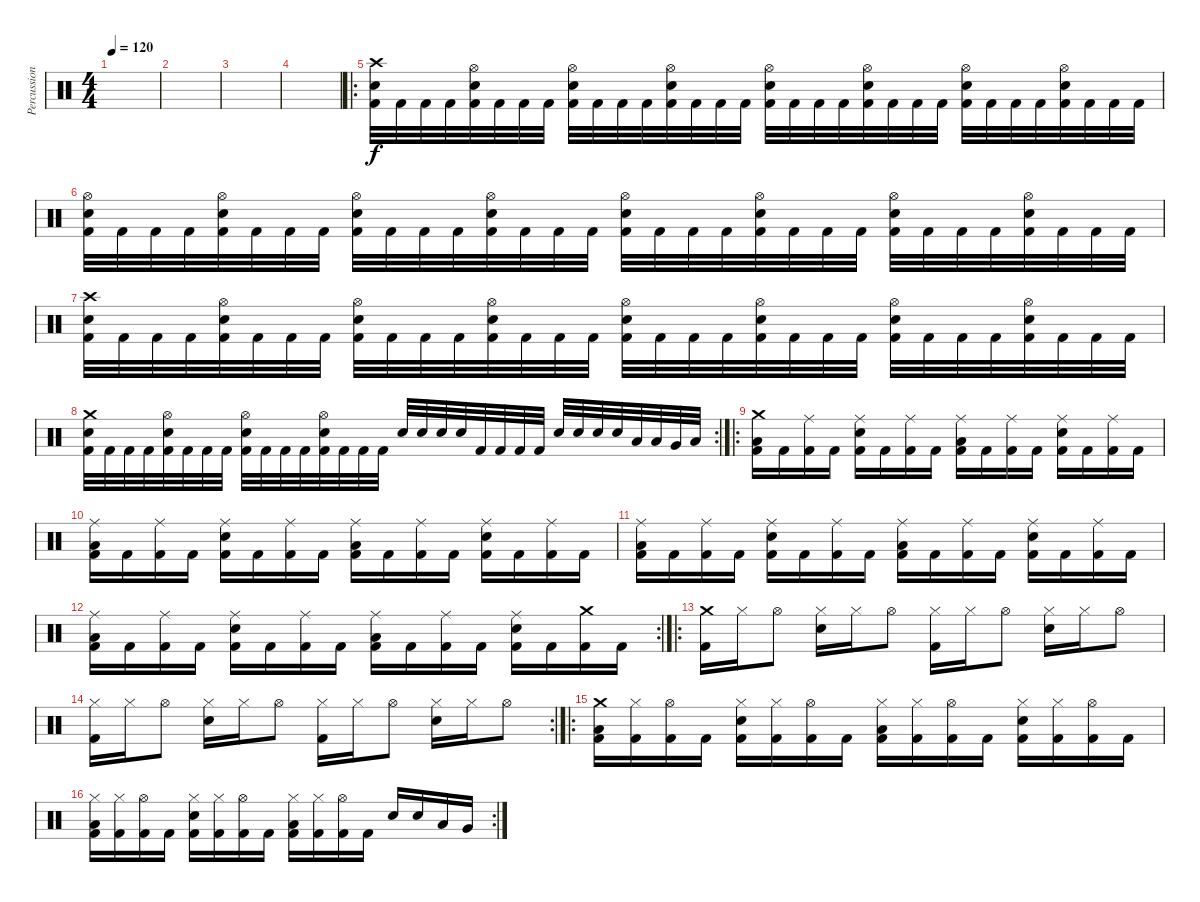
\track ("Percussion" "Percussion") {instrument percussion}
\staff {score}
\articulation defaults
\ts (4 4)
\tempo 120
\clef neutral
\ks c
|
|
|
|
\ro
("Crash high (hit)" "Electric Snare (hit)" "Kick (hit) 2").32 "Kick (hit) 2".32 "Kick (hit) 2".32 "Kick (hit) 2".32 ("Hi-Hat (open)" "Electric Snare (hit)" "Kick (hit) 2").32 "Kick (hit) 2".32 "Kick (hit) 2".32 "Kick (hit) 2".32 ("Hi-Hat (open)" "Electric Snare (hit)" "Kick (hit) 2").32 "Kick (hit) 2".32 "Kick (hit) 2".32 "Kick (hit) 2".32 ("Hi-Hat (open)" "Electric Snare (hit)" "Kick (hit) 2").32 "Kick (hit) 2".32 "Kick (hit) 2".32 "Kick (hit) 2".32 ("Hi-Hat (open)" "Electric Snare (hit)" "Kick (hit) 2").32 "Kick (hit) 2".32 "Kick (hit) 2".32 "Kick (hit) 2".32 ("Hi-Hat (open)" "Electric Snare (hit)" "Kick (hit) 2").32 "Kick (hit) 2".32 "Kick (hit) 2".32 "Kick (hit) 2".32 ("Hi-Hat (open)" "Electric Snare (hit)" "Kick (hit) 2").32 "Kick (hit) 2".32 "Kick (hit) 2".32 "Kick (hit) 2".32 ("Hi-Hat (open)" "Electric Snare (hit)" "Kick (hit) 2").32 "Kick (hit) 2".32 "Kick (hit) 2".32 "Kick (hit) 2".32 |
("Hi-Hat (open)" "Electric Snare (hit)" "Kick (hit) 2").32 "Kick (hit) 2".32 "Kick (hit) 2".32 "Kick (hit) 2".32 ("Hi-Hat (open)" "Electric Snare (hit)" "Kick (hit) 2").32 "Kick (hit) 2".32 "Kick (hit) 2".32 "Kick (hit) 2".32 ("Hi-Hat (open)" "Electric Snare (hit)" "Kick (hit) 2").32 "Kick (hit) 2".32 "Kick (hit) 2".32 "Kick (hit) 2".32 ("Hi-Hat (open)" "Electric Snare (hit)" "Kick (hit) 2").32 "Kick (hit) 2".32 "Kick (hit) 2".32 "Kick (hit) 2".32 ("Hi-Hat (open)" "Electric Snare (hit)" "Kick (hit) 2").32 "Kick (hit) 2".32 "Kick (hit) 2".32 "Kick (hit) 2".32 ("Hi-Hat (open)" "Electric Snare (hit)" "Kick (hit) 2").32 "Kick (hit) 2".32 "Kick (hit) 2".32 "Kick (hit) 2".32 ("Hi-Hat (open)" "Electric Snare (hit)" "Kick (hit) 2").32 "Kick (hit) 2".32 "Kick (hit) 2".32 "Kick (hit) 2".32 ("Hi-Hat (open)" "Electric Snare (hit)" "Kick (hit) 2").32 "Kick (hit) 2".32 "Kick (hit) 2".32 "Kick (hit) 2".32 |
("Crash high (hit)" "Electric Snare (hit)" "Kick (hit) 2").32 "Kick (hit) 2".32 "Kick (hit) 2".32 "Kick (hit) 2".32 ("Hi-Hat (open)" "Electric Snare (hit)" "Kick (hit) 2").32 "Kick (hit) 2".32 "Kick (hit) 2".32 "Kick (hit) 2".32 ("Hi-Hat (open)" "Electric Snare (hit)" "Kick (hit) 2").32 "Kick (hit) 2".32 "Kick (hit) 2".32 "Kick (hit) 2".32 ("Hi-Hat (open)" "Electric Snare (hit)" "Kick (hit) 2").32 "Kick (hit) 2".32 "Kick (hit) 2".32 "Kick (hit) 2".32 ("Hi-Hat (open)" "Electric Snare (hit)" "Kick (hit) 2").32 "Kick (hit) 2".32 "Kick (hit) 2".32 "Kick (hit) 2".32 ("Hi-Hat (open)" "Electric Snare (hit)" "Kick (hit) 2").32 "Kick (hit) 2".32 "Kick (hit) 2".32 "Kick (hit) 2".32 ("Hi-Hat (open)" "Electric Snare (hit)" "Kick (hit) 2").32 "Kick (hit) 2".32 "Kick (hit) 2".32 "Kick (hit) 2".32 ("Hi-Hat (open)" "Electric Snare (hit)" "Kick (hit) 2").32 "Kick (hit) 2".32 "Kick (hit) 2".32 "Kick (hit) 2".32 |
\rc 2
("Crash medium (hit)" "Electric Snare (hit)" "Kick (hit) 2").32 "Kick (hit) 2".32 "Kick (hit) 2".32 "Kick (hit) 2".32 ("Hi-Hat (open)" "Electric Snare (hit)" "Kick (hit) 2").32 "Kick (hit) 2".32 "Kick (hit) 2".32 "Kick (hit) 2".32 ("Hi-Hat (open)" "Electric Snare (hit)" "Kick (hit) 2").32 "Kick (hit) 2".32 "Kick (hit) 2".32 "Kick (hit) 2".32 ("Hi-Hat (open)" "Electric Snare (hit)" "Kick (hit) 2").32 "Kick (hit) 2".32 "Kick (hit) 2".32 "Kick (hit) 2".32 "Electric Snare (hit)".32 "Electric Snare (hit)".32 "Electric Snare (hit)".32 "Electric Snare (hit)".32 "Kick (hit) 2".32 "Kick (hit) 2".32 "Kick (hit) 2".32 "Kick (hit) 2".32 "Electric Snare (hit)".32 "Electric Snare (hit)".32 "Electric Snare (hit)".32 "Electric Snare (hit)".32 "Low Tom (hit)".32 "Low Tom (hit)".32 "Very Low Tom (hit)".32 "Low Floor Tom (hit)".32 |
\ro
("Crash medium (hit)" "Low Floor Tom (hit)" "Kick (hit) 2").16 "Kick (hit) 2".16 ("Ride (middle)" "Kick (hit) 2").16 "Kick (hit) 2".16 ("Ride (middle)" "Electric Snare (hit)" "Kick (hit) 2").16 "Kick (hit) 2".16 ("Ride (middle)" "Kick (hit) 2").16 "Kick (hit) 2".16 ("Ride (middle)" "Low Floor Tom (hit)" "Kick (hit) 2").16 "Kick (hit) 2".16 ("Ride (middle)" "Kick (hit) 2").16 "Kick (hit) 2".16 ("Ride (middle)" "Electric Snare (hit)" "Kick (hit) 2").16 "Kick (hit) 2".16 ("Ride (middle)" "Kick (hit) 2").16 "Kick (hit) 2".16 |
("Ride (middle)" "Low Floor Tom (hit)" "Kick (hit) 2").16 "Kick (hit) 2".16 ("Ride (middle)" "Kick (hit) 2").16 "Kick (hit) 2".16 ("Ride (middle)" "Electric Snare (hit)" "Kick (hit) 2").16 "Kick (hit) 2".16 ("Ride (middle)" "Kick (hit) 2").16 "Kick (hit) 2".16 ("Ride (middle)" "Low Floor Tom (hit)" "Kick (hit) 2").16 "Kick (hit) 2".16 ("Ride (middle)" "Kick (hit) 2").16 "Kick (hit) 2".16 ("Ride (middle)" "Electric Snare (hit)" "Kick (hit) 2").16 "Kick (hit) 2".16 ("Ride (middle)" "Kick (hit) 2").16 "Kick (hit) 2".16 |
("Ride (middle)" "Low Floor Tom (hit)" "Kick (hit) 2").16 "Kick (hit) 2".16 ("Ride (middle)" "Kick (hit) 2").16 "Kick (hit) 2".16 ("Ride (middle)" "Electric Snare (hit)" "Kick (hit) 2").16 "Kick (hit) 2".16 ("Ride (middle)" "Kick (hit) 2").16 "Kick (hit) 2".16 ("Ride (middle)" "Low Floor Tom (hit)" "Kick (hit) 2").16 "Kick (hit) 2".16 ("Ride (middle)" "Kick (hit) 2").16 "Kick (hit) 2".16 ("Ride (middle)" "Electric Snare (hit)" "Kick (hit) 2").16 "Kick (hit) 2".16 ("Ride (middle)" "Kick (hit) 2").16 "Kick (hit) 2".16 |
\rc 2
("Ride (middle)" "Low Floor Tom (hit)" "Kick (hit) 2").16 "Kick (hit) 2".16 ("Ride (middle)" "Kick (hit) 2").16 "Kick (hit) 2".16 ("Ride (middle)" "Electric Snare (hit)" "Kick (hit) 2").16 "Kick (hit) 2".16 ("Ride (middle)" "Kick (hit) 2").16 "Kick (hit) 2".16 ("Ride (middle)" "Low Floor Tom (hit)" "Kick (hit) 2").16 "Kick (hit) 2".16 ("Ride (middle)" "Kick (hit) 2").16 "Kick (hit) 2".16 ("Ride (middle)" "Electric Snare (hit)" "Kick (hit) 2").16 "Kick (hit) 2".16 ("Crash medium (hit)" "Kick (hit) 2").16 "Kick (hit) 2".16 |
\ro
("Crash medium (hit)" "Kick (hit) 2").16 "Hi-Hat (closed)".16 "Hi-Hat (open)".8 ("Hi-Hat (closed)" "Electric Snare (hit)").16 "Hi-Hat (closed)".16 "Hi-Hat (open)".8 ("Hi-Hat (closed)" "Kick (hit) 2").16 "Hi-Hat (closed)".16 "Hi-Hat (open)".8 ("Hi-Hat (closed)" "Electric Snare (hit)").16 "Hi-Hat (closed)".16 "Hi-Hat (open)".8 |
\rc 2
("Hi-Hat (closed)" "Kick (hit) 2").16 "Hi-Hat (closed)".16 "Hi-Hat (open)".8 ("Hi-Hat (closed)" "Electric Snare (hit)").16 "Hi-Hat (closed)".16 "Hi-Hat (open)".8 ("Hi-Hat (closed)" "Kick (hit) 2").16 "Hi-Hat (closed)".16 "Hi-Hat (open)".8 ("Hi-Hat (closed)" "Electric Snare (hit)").16 "Hi-Hat (closed)".16 "Hi-Hat (open)".8 |
\ro
("Crash medium (hit)" "Low Floor Tom (hit)" "Kick (hit) 2").16 ("Hi-Hat (closed)" "Kick (hit) 2").16 ("Hi-Hat (open)" "Kick (hit) 2").16 "Kick (hit) 2".16 ("Hi-Hat (closed)" "Electric Snare (hit)" "Kick (hit) 2").16 ("Hi-Hat (closed)" "Kick (hit) 2").16 ("Hi-Hat (open)" "Kick (hit) 2").16 "Kick (hit) 2".16 ("Hi-Hat (closed)" "Low Floor Tom (hit)" "Kick (hit) 2").16 ("Hi-Hat (closed)" "Kick (hit) 2").16 ("Hi-Hat (open)" "Kick (hit) 2").16 "Kick (hit) 2".16 ("Hi-Hat (closed)" "Electric Snare (hit)" "Kick (hit) 2").16 ("Hi-Hat (closed)" "Kick (hit) 2").16 ("Hi-Hat (open)" "Kick (hit) 2").16 "Kick (hit) 2".16 |
\rc 2
("Hi-Hat (closed)" "Low Floor Tom (hit)" "Kick (hit) 2").16 ("Hi-Hat (closed)" "Kick (hit) 2").16 ("Hi-Hat (open)" "Kick (hit) 2").16 "Kick (hit) 2".16 ("Hi-Hat (closed)" "Electric Snare (hit)" "Kick (hit) 2").16 ("Hi-Hat (closed)" "Kick (hit) 2").16 ("Hi-Hat (open)" "Kick (hit) 2").16 "Kick (hit) 2".16 ("Hi-Hat (closed)" "Low Floor Tom (hit)" "Kick (hit) 2").16 ("Hi-Hat (closed)" "Kick (hit) 2").16 ("Hi-Hat (open)" "Kick (hit) 2").16 "Kick (hit) 2".16 "Electric Snare (hit)".16 "Electric Snare (hit)".16 "Low Tom (hit)".16 "Very Low Tom (hit)".16
